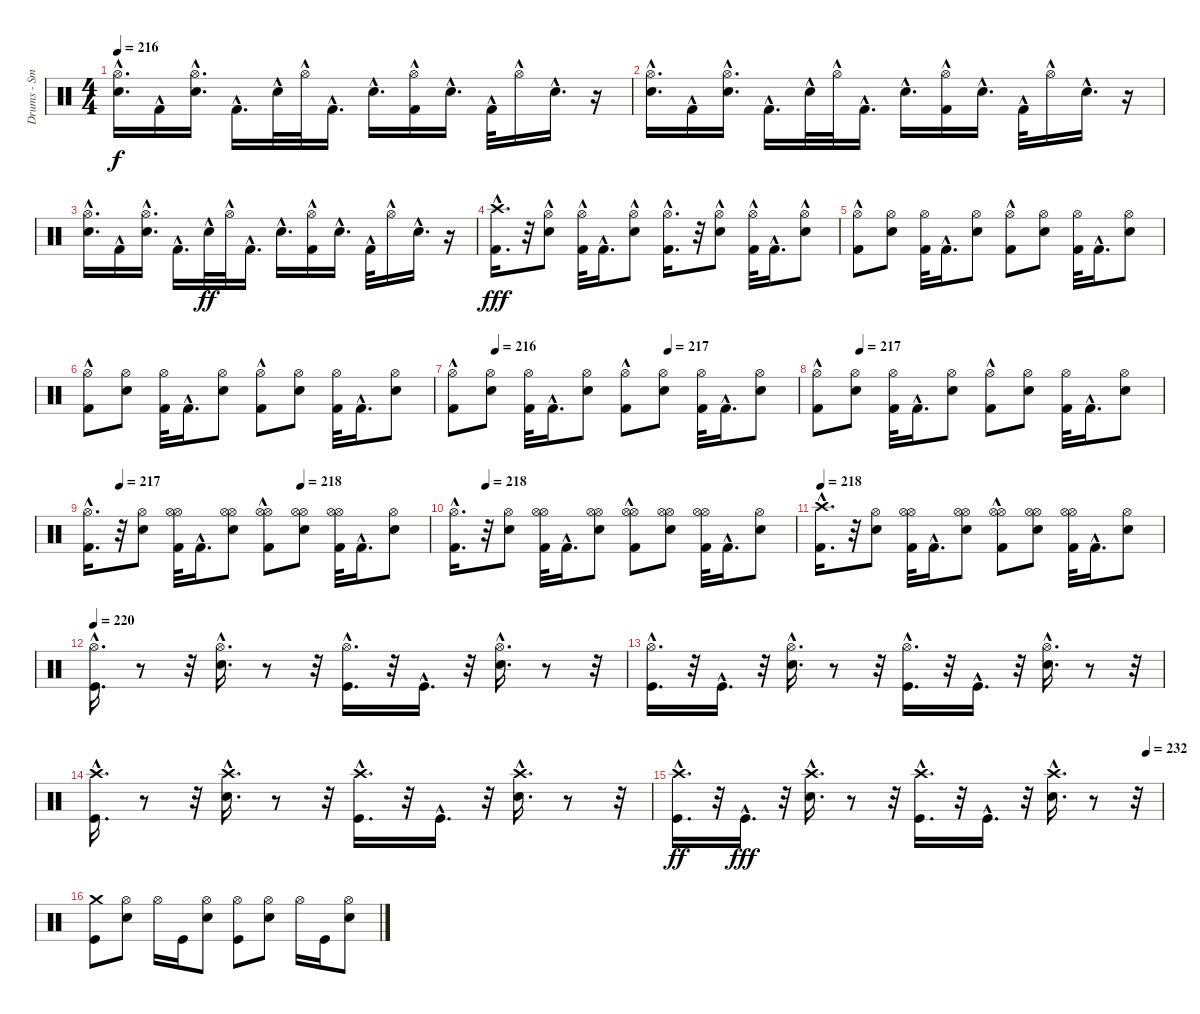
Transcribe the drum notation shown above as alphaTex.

\track ("Drums - Smelly" "Drums - Sm") {instrument percussion}
\staff {score}
\articulation defaults
\ts (4 4)
\tempo 216
\clef neutral
\ks c
("Hi-Hat (open)"{hac} "Electric Snare (hit)"{hac}).16{d dy f} "Kick (hit) 2"{hac}.16 ("Hi-Hat (open)"{hac} "Electric Snare (hit)"{hac}).16{d} "Kick (hit) 2"{hac}.16{d} "Electric Snare (hit)"{hac}.32 "Hi-Hat (open)"{hac}.32 "Kick (hit) 2"{hac}.16{d} "Electric Snare (hit)"{hac}.16{d} ("Kick (hit) 2"{hac} "Hi-Hat (open)"{hac}).16 "Electric Snare (hit)"{hac}.16{d} "Kick (hit) 2"{hac}.32 "Hi-Hat (open)"{hac}.16 "Electric Snare (hit)"{hac}.16{d} r.16 |
("Electric Snare (hit)"{hac} "Hi-Hat (open)"{hac}).16{d} "Kick (hit) 2"{hac}.16 ("Electric Snare (hit)"{hac} "Hi-Hat (open)"{hac}).16{d} "Kick (hit) 2"{hac}.16{d} "Electric Snare (hit)"{hac}.32 "Hi-Hat (open)"{hac}.32 "Kick (hit) 2"{hac}.16{d} "Electric Snare (hit)"{hac}.16{d} ("Hi-Hat (open)"{hac} "Kick (hit) 2"{hac}).16 "Electric Snare (hit)"{hac}.16{d} "Kick (hit) 2"{hac}.32 "Hi-Hat (open)"{hac}.16 "Electric Snare (hit)"{hac}.16{d} r.16 |
("Electric Snare (hit)"{hac} "Hi-Hat (open)"{hac}).16{d} "Kick (hit) 2"{hac}.16 ("Electric Snare (hit)"{hac} "Hi-Hat (open)"{hac}).16{d} "Kick (hit) 2"{hac}.16{d} "Electric Snare (hit)"{hac}.32{dy ff} "Hi-Hat (open)"{hac}.32 "Kick (hit) 2"{hac}.16{d} "Electric Snare (hit)"{hac}.16{d} ("Hi-Hat (open)"{hac} "Kick (hit) 2"{hac}).16 "Electric Snare (hit)"{hac}.16{d} "Kick (hit) 2"{hac}.32 "Hi-Hat (open)"{hac}.16 "Electric Snare (hit)"{hac}.16{d} r.16 |
("Kick (hit) 2"{hac} "Crash high (hit)"{hac}).16{d dy fff} r.32 ("Electric Snare (hit)" "Hi-Hat (open)"{hac}).8 ("Kick (hit) 2" "Hi-Hat (open)"{hac}).32 "Kick (hit) 2"{hac}.16{d} ("Hi-Hat (open)"{hac} "Electric Snare (hit)").8 ("Kick (hit) 2"{hac} "Hi-Hat (open)"{hac}).16{d} r.32 ("Hi-Hat (open)"{hac} "Electric Snare (hit)").8 ("Kick (hit) 2" "Hi-Hat (open)"{hac}).32 "Kick (hit) 2"{hac}.16{d} ("Electric Snare (hit)" "Hi-Hat (open)"{hac}).8 |
("Kick (hit) 2"{hac} "Hi-Hat (open)").8 ("Hi-Hat (open)" "Electric Snare (hit)").8 ("Kick (hit) 2" "Hi-Hat (open)").32 "Kick (hit) 2"{hac}.16{d} ("Hi-Hat (open)" "Electric Snare (hit)").8 ("Kick (hit) 2"{hac} "Hi-Hat (open)").8 ("Hi-Hat (open)" "Electric Snare (hit)").8 ("Hi-Hat (open)" "Kick (hit) 2").32 "Kick (hit) 2"{hac}.16{d} ("Hi-Hat (open)" "Electric Snare (hit)").8 |
("Kick (hit) 2"{hac} "Hi-Hat (open)").8 ("Electric Snare (hit)" "Hi-Hat (open)").8 ("Kick (hit) 2" "Hi-Hat (open)").32 "Kick (hit) 2"{hac}.16{d} ("Hi-Hat (open)" "Electric Snare (hit)").8 ("Hi-Hat (open)" "Kick (hit) 2"{hac}).8 ("Electric Snare (hit)" "Hi-Hat (open)").8 ("Hi-Hat (open)" "Kick (hit) 2").32 "Kick (hit) 2"{hac}.16{d} ("Electric Snare (hit)" "Hi-Hat (open)").8 |
\tempo (216 0.125)
\tempo (217 0.625)
("Kick (hit) 2"{hac} "Hi-Hat (open)").8 ("Hi-Hat (open)" "Electric Snare (hit)").8 ("Hi-Hat (open)" "Kick (hit) 2").32 "Kick (hit) 2"{hac}.16{d} ("Electric Snare (hit)" "Hi-Hat (open)").8 ("Kick (hit) 2"{hac} "Hi-Hat (open)").8 ("Electric Snare (hit)" "Hi-Hat (open)").8 ("Hi-Hat (open)" "Kick (hit) 2").32 "Kick (hit) 2"{hac}.16{d} ("Hi-Hat (open)" "Electric Snare (hit)").8 |
\tempo (217 0.125)
("Kick (hit) 2"{hac} "Hi-Hat (open)").8 ("Hi-Hat (open)" "Electric Snare (hit)").8 ("Kick (hit) 2" "Hi-Hat (open)").32 "Kick (hit) 2"{hac}.16{d} ("Electric Snare (hit)" "Hi-Hat (open)").8 ("Hi-Hat (open)" "Kick (hit) 2"{hac}).8 ("Hi-Hat (open)" "Electric Snare (hit)").8 ("Kick (hit) 2" "Hi-Hat (open)").32 "Kick (hit) 2"{hac}.16{d} ("Hi-Hat (open)" "Electric Snare (hit)").8 |
\tempo (217 0.09375)
\tempo (218 0.625)
("Kick (hit) 2"{hac} "Hi-Hat (open)"{hac}).16{d} r.32 ("Hi-Hat (open)" "Electric Snare (hit)").8 ("Hi-Hat (open)" "Hi-Hat (open)" "Kick (hit) 2").32 "Kick (hit) 2"{hac}.16{d} ("Hi-Hat (open)" "Hi-Hat (open)" "Electric Snare (hit)").8 ("Hi-Hat (open)" "Kick (hit) 2"{hac} "Hi-Hat (open)").8 ("Hi-Hat (open)" "Electric Snare (hit)" "Hi-Hat (open)").8 ("Kick (hit) 2" "Hi-Hat (open)" "Hi-Hat (open)").32 "Kick (hit) 2"{hac}.16{d} ("Hi-Hat (open)" "Electric Snare (hit)").8 |
\tempo (218 0.09375)
("Kick (hit) 2"{hac} "Hi-Hat (open)"{hac}).16{d} r.32 ("Electric Snare (hit)" "Hi-Hat (open)").8 ("Hi-Hat (open)" "Hi-Hat (open)" "Kick (hit) 2").32 "Kick (hit) 2"{hac}.16{d} ("Electric Snare (hit)" "Hi-Hat (open)" "Hi-Hat (open)").8 ("Hi-Hat (open)" "Hi-Hat (open)" "Kick (hit) 2"{hac}).8 ("Hi-Hat (open)" "Electric Snare (hit)" "Hi-Hat (open)").8 ("Kick (hit) 2" "Hi-Hat (open)" "Hi-Hat (open)").32 "Kick (hit) 2"{hac}.16{d} ("Hi-Hat (open)" "Electric Snare (hit)").8 |
\tempo 218
("Kick (hit) 2"{hac} "Crash high (hit)"{hac}).16{d} r.32 ("Electric Snare (hit)" "Hi-Hat (open)").8 ("Hi-Hat (open)" "Hi-Hat (open)" "Kick (hit) 2").32 "Kick (hit) 2"{hac}.16{d} ("Hi-Hat (open)" "Electric Snare (hit)" "Hi-Hat (open)").8 ("Hi-Hat (open)" "Kick (hit) 2"{hac} "Hi-Hat (open)").8 ("Hi-Hat (open)" "Electric Snare (hit)" "Hi-Hat (open)").8 ("Kick (hit) 2" "Hi-Hat (open)" "Hi-Hat (open)").32 "Kick (hit) 2"{hac}.16{d} ("Electric Snare (hit)" "Hi-Hat (open)").8 |
\tempo 220
("Kick (hit)"{hac} "Hi-Hat (open)"{hac}).16{d} r.8 r.32 ("Hi-Hat (open)"{hac} "Electric Snare (hit)"{hac}).16{d} r.8 r.32 ("Hi-Hat (open)"{hac} "Kick (hit)"{hac}).16{d} r.32 "Kick (hit)"{hac}.16{d} r.32 ("Hi-Hat (open)"{hac} "Electric Snare (hit)"{hac}).16{d} r.8 r.32 |
("Kick (hit)"{hac} "Hi-Hat (open)"{hac}).16{d} r.32 "Kick (hit)"{hac}.16{d} r.32 ("Hi-Hat (open)"{hac} "Electric Snare (hit)"{hac}).16{d} r.8 r.32 ("Kick (hit)"{hac} "Hi-Hat (open)"{hac}).16{d} r.32 "Kick (hit)"{hac}.16{d} r.32 ("Hi-Hat (open)"{hac} "Electric Snare (hit)"{hac}).16{d} r.8 r.32 |
("Kick (hit)"{hac} "Crash high (hit)"{hac}).16{d} r.8 r.32 ("Crash high (hit)"{hac} "Electric Snare (hit)"{hac}).16{d} r.8 r.32 ("Kick (hit)"{hac} "Crash high (hit)"{hac}).16{d} r.32 "Kick (hit)"{hac}.16{d} r.32 ("Crash high (hit)"{hac} "Electric Snare (hit)"{hac}).16{d} r.8 r.32 |
\tempo (232 0.96875)
("Kick (hit)"{hac} "Crash high (hit)"{hac}).16{d dy ff} r.32 "Kick (hit)"{hac}.16{d dy fff} r.32 ("Crash high (hit)"{hac} "Electric Snare (hit)"{hac}).16{d} r.8 r.32 ("Crash high (hit)"{hac} "Kick (hit)"{hac}).16{d} r.32 "Kick (hit)"{hac}.16{d} r.32 ("Crash high (hit)"{hac} "Electric Snare (hit)"{hac}).16{d} r.8 r.32 |
("Crash medium (hit)" "Kick (hit)").8 ("Electric Snare (hit)" "Hi-Hat (open)").8 "Hi-Hat (open)".16 "Kick (hit)".16 ("Hi-Hat (open)" "Electric Snare (hit)").8 ("Kick (hit)" "Hi-Hat (open)").8 ("Electric Snare (hit)" "Hi-Hat (open)").8 "Hi-Hat (open)".16 "Kick (hit)".16 ("Electric Snare (hit)" "Hi-Hat (open)").8
